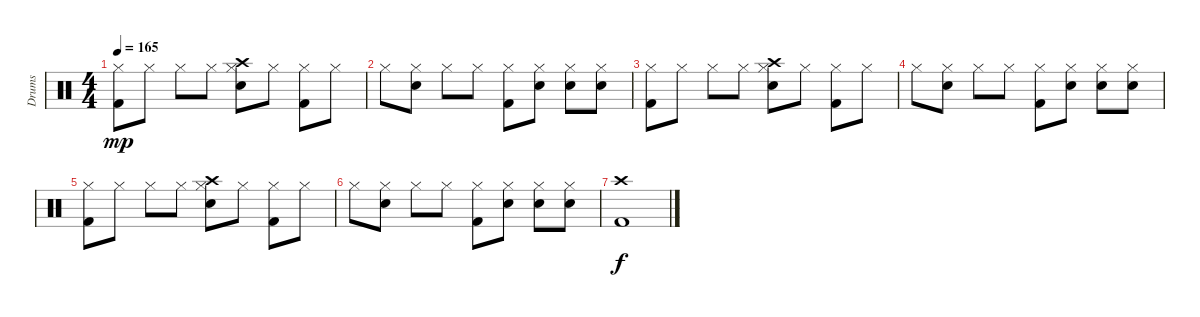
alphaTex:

\track ("Drums" "Drums") {instrument percussion}
\staff {score}
\articulation defaults
\ts (4 4)
\tempo 165
\clef neutral
\ks c
("Hi-Hat (closed)" "Kick (hit) 2").8{dy mp} "Hi-Hat (closed)".8 "Hi-Hat (closed)".8 "Hi-Hat (closed)".8 ("Hi-Hat (closed)" "Snare (hit) 2" "Crash high (hit)").8 "Hi-Hat (closed)".8 ("Hi-Hat (closed)" "Kick (hit) 2").8 "Hi-Hat (closed)".8 |
"Hi-Hat (closed)".8 ("Hi-Hat (closed)" "Snare (hit) 2").8 "Hi-Hat (closed)".8 "Hi-Hat (closed)".8 ("Hi-Hat (closed)" "Kick (hit) 2").8 ("Hi-Hat (closed)" "Electric Snare (hit)").8 ("Hi-Hat (closed)" "Electric Snare (hit)").8 ("Hi-Hat (closed)" "Snare (hit) 2").8 |
("Hi-Hat (closed)" "Kick (hit) 2").8 "Hi-Hat (closed)".8 "Hi-Hat (closed)".8 "Hi-Hat (closed)".8 ("Hi-Hat (closed)" "Snare (hit) 2" "Crash high (hit)").8 "Hi-Hat (closed)".8 ("Hi-Hat (closed)" "Kick (hit) 2").8 "Hi-Hat (closed)".8 |
"Hi-Hat (closed)".8 ("Hi-Hat (closed)" "Snare (hit) 2").8 "Hi-Hat (closed)".8 "Hi-Hat (closed)".8 ("Hi-Hat (closed)" "Kick (hit) 2").8 ("Hi-Hat (closed)" "Electric Snare (hit)").8 ("Hi-Hat (closed)" "Electric Snare (hit)").8 ("Hi-Hat (closed)" "Snare (hit) 2").8 |
("Hi-Hat (closed)" "Kick (hit) 2").8 "Hi-Hat (closed)".8 "Hi-Hat (closed)".8 "Hi-Hat (closed)".8 ("Hi-Hat (closed)" "Snare (hit) 2" "Crash high (hit)").8 "Hi-Hat (closed)".8 ("Hi-Hat (closed)" "Kick (hit) 2").8 "Hi-Hat (closed)".8 |
"Hi-Hat (closed)".8 ("Hi-Hat (closed)" "Snare (hit) 2").8 "Hi-Hat (closed)".8 "Hi-Hat (closed)".8 ("Hi-Hat (closed)" "Kick (hit) 2").8 ("Hi-Hat (closed)" "Electric Snare (hit)").8 ("Hi-Hat (closed)" "Electric Snare (hit)").8 ("Hi-Hat (closed)" "Snare (hit) 2").8 |
("Crash high (hit)" "Kick (hit) 2").1{dy f}
